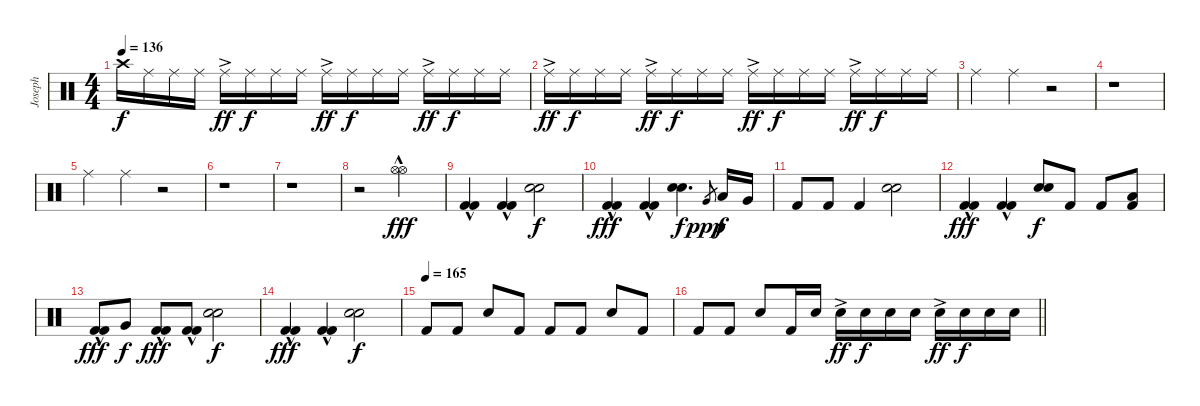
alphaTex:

\track ("Joseph" "Joseph") {instrument percussion}
\staff {score}
\articulation defaults
\ts (4 4)
\tempo 136
\clef neutral
\ks c "Crash high (hit)".16{dy f volume 3} "Ride (middle)".16 "Ride (middle)".16 "Ride (middle)".16 "Ride (middle)"{ac}.16{dy ff} "Ride (middle)".16{dy f} "Ride (middle)".16 "Ride (middle)".16 "Ride (middle)"{ac}.16{dy ff} "Ride (middle)".16{dy f} "Ride (middle)".16 "Ride (middle)".16 "Ride (middle)"{ac}.16{dy ff} "Ride (middle)".16{dy f} "Ride (middle)".16 "Ride (middle)".16
|
"Ride (middle)"{ac}.16{dy ff} "Ride (middle)".16{dy f} "Ride (middle)".16 "Ride (middle)".16 "Ride (middle)"{ac}.16{dy ff} "Ride (middle)".16{dy f} "Ride (middle)".16 "Ride (middle)".16 "Ride (middle)"{ac}.16{dy ff} "Ride (middle)".16{dy f} "Ride (middle)".16 "Ride (middle)".16 "Ride (middle)"{ac}.16{dy ff} "Ride (middle)".16{dy f} "Ride (middle)".16 "Ride (middle)".16 |
"Ride (middle)".4 "Ride (middle)".4 r.2 |
r.1 |
"Ride (middle)".4 "Ride (middle)".4 r.2 |
r.1 |
r.1 |
r.2{volume 16} ("Hi-Hat (open)"{hac} "Hi-Hat (open)"{hac}).2{dy fff} |
("Kick (hit) 2"{hac} "Kick (hit) 2"{hac}).4 ("Kick (hit) 2"{hac} "Kick (hit) 2"{hac}).4 ("Electric Snare (hit)" "Electric Snare (hit)").2{dy f} |
("Kick (hit) 2"{hac} "Kick (hit) 2"{hac}).4{dy fff} ("Kick (hit) 2"{hac} "Kick (hit) 2"{hac}).4 ("Electric Snare (hit)" "Electric Snare (hit)").4{d dy f} "Very Low Tom (hit)".8{gr dy ppp} "Low Tom (hit)".16{dy f} "Very Low Tom (hit)".16 |
"Kick (hit) 2".8 "Kick (hit) 2".8 "Kick (hit) 2".4 ("Electric Snare (hit)" "Electric Snare (hit)").2 |
("Kick (hit) 2"{hac} "Kick (hit) 2"{hac}).4{dy fff} ("Kick (hit) 2"{hac} "Kick (hit) 2"{hac}).4 ("Electric Snare (hit)" "Electric Snare (hit)").8{dy f} "Kick (hit) 2".8 "Kick (hit) 2".8 ("Kick (hit) 2" "Low Tom (hit)").8 |
("Kick (hit) 2"{hac} "Kick (hit) 2"{hac}).8{dy fff} "Very Low Tom (hit)".8{dy f} ("Kick (hit) 2"{hac} "Kick (hit) 2"{hac}).8{dy fff} ("Kick (hit) 2"{hac} "Kick (hit) 2"{hac}).8 ("Electric Snare (hit)" "Electric Snare (hit)").2{dy f} |
("Kick (hit) 2"{hac} "Kick (hit) 2"{hac}).4{dy fff} ("Kick (hit) 2"{hac} "Kick (hit) 2"{hac}).4 ("Electric Snare (hit)" "Electric Snare (hit)").2{dy f} |
\tempo (165)
"Kick (hit) 2".8 "Kick (hit) 2".8 "Electric Snare (hit)".8 "Kick (hit) 2".8 "Kick (hit) 2".8 "Kick (hit) 2".8 "Electric Snare (hit)".8 "Kick (hit) 2".8 |
\barLineRight lightlight "Kick (hit) 2".8 "Kick (hit) 2".8 "Electric Snare (hit)".8 "Kick (hit) 2".16 "Electric Snare (hit)".16 "Electric Snare (hit)"{ac}.16{dy ff} "Electric Snare (hit)".16{dy f} "Electric Snare (hit)".16 "Electric Snare (hit)".16 "Electric Snare (hit)"{ac}.16{dy ff} "Electric Snare (hit)".16{dy f} "Electric Snare (hit)".16 "Electric Snare (hit)".16
